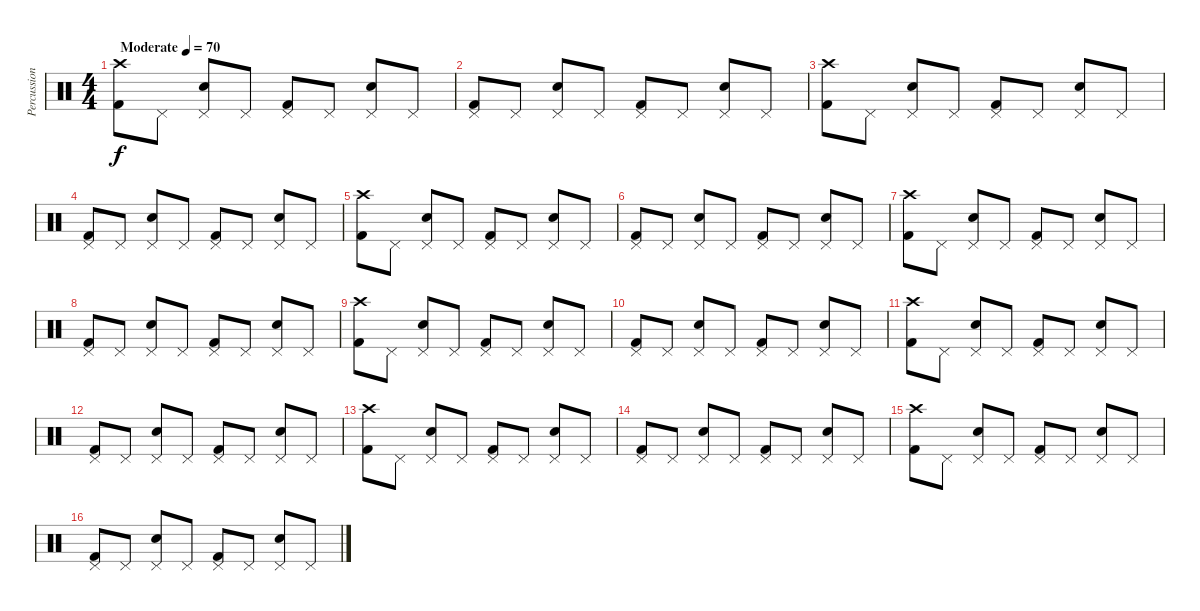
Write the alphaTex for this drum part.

\track ("Percussion" "Percussion") {instrument percussion}
\staff {score}
\articulation defaults
\ts (4 4)
\tempo (70 "Moderate")
\clef neutral
\ks c
("Crash high (hit)" "Kick (hit) 2").8{dy f} "Pedal Hi-Hat (hit)".8 ("Pedal Hi-Hat (hit)" "Snare (hit) 2").8 "Pedal Hi-Hat (hit)".8 ("Pedal Hi-Hat (hit)" "Kick (hit) 2").8 "Pedal Hi-Hat (hit)".8 ("Pedal Hi-Hat (hit)" "Snare (hit) 2").8 "Pedal Hi-Hat (hit)".8 |
("Pedal Hi-Hat (hit)" "Kick (hit) 2").8 "Pedal Hi-Hat (hit)".8 ("Pedal Hi-Hat (hit)" "Snare (hit) 2").8 "Pedal Hi-Hat (hit)".8 ("Pedal Hi-Hat (hit)" "Kick (hit) 2").8 "Pedal Hi-Hat (hit)".8 ("Pedal Hi-Hat (hit)" "Snare (hit) 2").8 "Pedal Hi-Hat (hit)".8 |
("Crash high (hit)" "Kick (hit) 2").8 "Pedal Hi-Hat (hit)".8 ("Pedal Hi-Hat (hit)" "Snare (hit) 2").8 "Pedal Hi-Hat (hit)".8 ("Pedal Hi-Hat (hit)" "Kick (hit) 2").8 "Pedal Hi-Hat (hit)".8 ("Pedal Hi-Hat (hit)" "Snare (hit) 2").8 "Pedal Hi-Hat (hit)".8 |
("Pedal Hi-Hat (hit)" "Kick (hit) 2").8 "Pedal Hi-Hat (hit)".8 ("Pedal Hi-Hat (hit)" "Snare (hit) 2").8 "Pedal Hi-Hat (hit)".8 ("Pedal Hi-Hat (hit)" "Kick (hit) 2").8 "Pedal Hi-Hat (hit)".8 ("Pedal Hi-Hat (hit)" "Snare (hit) 2").8 "Pedal Hi-Hat (hit)".8 |
("Crash high (hit)" "Kick (hit) 2").8 "Pedal Hi-Hat (hit)".8 ("Pedal Hi-Hat (hit)" "Snare (hit) 2").8 "Pedal Hi-Hat (hit)".8 ("Pedal Hi-Hat (hit)" "Kick (hit) 2").8 "Pedal Hi-Hat (hit)".8 ("Pedal Hi-Hat (hit)" "Snare (hit) 2").8 "Pedal Hi-Hat (hit)".8 |
("Pedal Hi-Hat (hit)" "Kick (hit) 2").8 "Pedal Hi-Hat (hit)".8 ("Pedal Hi-Hat (hit)" "Snare (hit) 2").8 "Pedal Hi-Hat (hit)".8 ("Pedal Hi-Hat (hit)" "Kick (hit) 2").8 "Pedal Hi-Hat (hit)".8 ("Pedal Hi-Hat (hit)" "Snare (hit) 2").8 "Pedal Hi-Hat (hit)".8 |
("Crash high (hit)" "Kick (hit) 2").8 "Pedal Hi-Hat (hit)".8 ("Pedal Hi-Hat (hit)" "Snare (hit) 2").8 "Pedal Hi-Hat (hit)".8 ("Pedal Hi-Hat (hit)" "Kick (hit) 2").8 "Pedal Hi-Hat (hit)".8 ("Pedal Hi-Hat (hit)" "Snare (hit) 2").8 "Pedal Hi-Hat (hit)".8 |
("Pedal Hi-Hat (hit)" "Kick (hit) 2").8 "Pedal Hi-Hat (hit)".8 ("Pedal Hi-Hat (hit)" "Snare (hit) 2").8 "Pedal Hi-Hat (hit)".8 ("Pedal Hi-Hat (hit)" "Kick (hit) 2").8 "Pedal Hi-Hat (hit)".8 ("Pedal Hi-Hat (hit)" "Snare (hit) 2").8 "Pedal Hi-Hat (hit)".8 |
("Crash high (hit)" "Kick (hit) 2").8 "Pedal Hi-Hat (hit)".8 ("Pedal Hi-Hat (hit)" "Snare (hit) 2").8 "Pedal Hi-Hat (hit)".8 ("Pedal Hi-Hat (hit)" "Kick (hit) 2").8 "Pedal Hi-Hat (hit)".8 ("Pedal Hi-Hat (hit)" "Snare (hit) 2").8 "Pedal Hi-Hat (hit)".8 |
("Pedal Hi-Hat (hit)" "Kick (hit) 2").8 "Pedal Hi-Hat (hit)".8 ("Pedal Hi-Hat (hit)" "Snare (hit) 2").8 "Pedal Hi-Hat (hit)".8 ("Pedal Hi-Hat (hit)" "Kick (hit) 2").8 "Pedal Hi-Hat (hit)".8 ("Pedal Hi-Hat (hit)" "Snare (hit) 2").8 "Pedal Hi-Hat (hit)".8 |
("Crash high (hit)" "Kick (hit) 2").8 "Pedal Hi-Hat (hit)".8 ("Pedal Hi-Hat (hit)" "Snare (hit) 2").8 "Pedal Hi-Hat (hit)".8 ("Pedal Hi-Hat (hit)" "Kick (hit) 2").8 "Pedal Hi-Hat (hit)".8 ("Pedal Hi-Hat (hit)" "Snare (hit) 2").8 "Pedal Hi-Hat (hit)".8 |
("Pedal Hi-Hat (hit)" "Kick (hit) 2").8 "Pedal Hi-Hat (hit)".8 ("Pedal Hi-Hat (hit)" "Snare (hit) 2").8 "Pedal Hi-Hat (hit)".8 ("Pedal Hi-Hat (hit)" "Kick (hit) 2").8 "Pedal Hi-Hat (hit)".8 ("Pedal Hi-Hat (hit)" "Snare (hit) 2").8 "Pedal Hi-Hat (hit)".8 |
("Crash high (hit)" "Kick (hit) 2").8 "Pedal Hi-Hat (hit)".8 ("Pedal Hi-Hat (hit)" "Snare (hit) 2").8 "Pedal Hi-Hat (hit)".8 ("Pedal Hi-Hat (hit)" "Kick (hit) 2").8 "Pedal Hi-Hat (hit)".8 ("Pedal Hi-Hat (hit)" "Snare (hit) 2").8 "Pedal Hi-Hat (hit)".8 |
("Pedal Hi-Hat (hit)" "Kick (hit) 2").8 "Pedal Hi-Hat (hit)".8 ("Pedal Hi-Hat (hit)" "Snare (hit) 2").8 "Pedal Hi-Hat (hit)".8 ("Pedal Hi-Hat (hit)" "Kick (hit) 2").8 "Pedal Hi-Hat (hit)".8 ("Pedal Hi-Hat (hit)" "Snare (hit) 2").8 "Pedal Hi-Hat (hit)".8 |
("Crash high (hit)" "Kick (hit) 2").8 "Pedal Hi-Hat (hit)".8 ("Pedal Hi-Hat (hit)" "Snare (hit) 2").8 "Pedal Hi-Hat (hit)".8 ("Pedal Hi-Hat (hit)" "Kick (hit) 2").8 "Pedal Hi-Hat (hit)".8 ("Pedal Hi-Hat (hit)" "Snare (hit) 2").8 "Pedal Hi-Hat (hit)".8 |
("Pedal Hi-Hat (hit)" "Kick (hit) 2").8 "Pedal Hi-Hat (hit)".8 ("Pedal Hi-Hat (hit)" "Snare (hit) 2").8 "Pedal Hi-Hat (hit)".8 ("Pedal Hi-Hat (hit)" "Kick (hit) 2").8 "Pedal Hi-Hat (hit)".8 ("Pedal Hi-Hat (hit)" "Snare (hit) 2").8 "Pedal Hi-Hat (hit)".8
